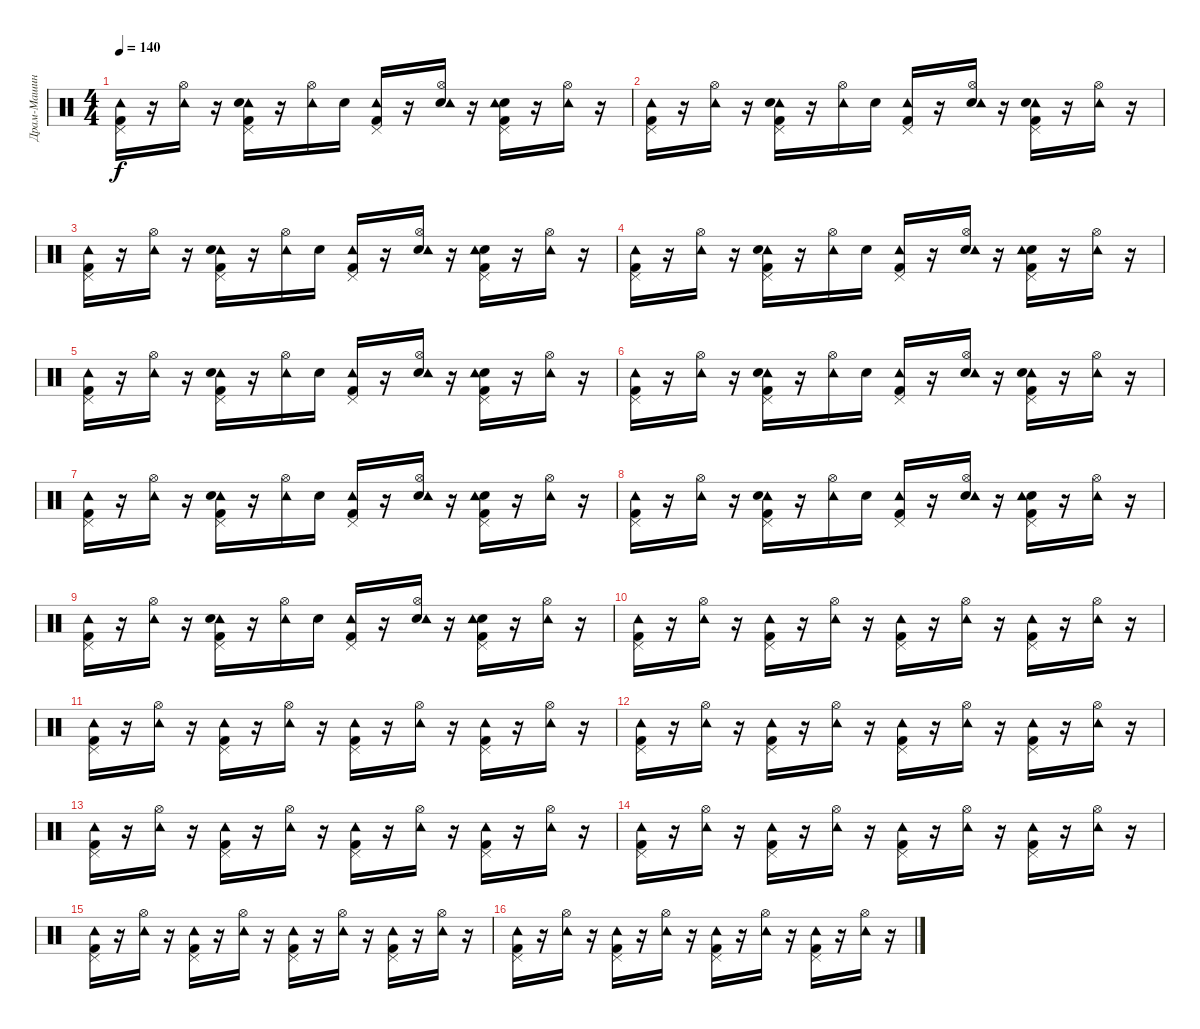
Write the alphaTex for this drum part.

\track ("Драм-Машина" "Драм-Машин") {instrument percussion}
\staff {score}
\articulation defaults
\ts (4 4)
\tempo 140
\clef neutral
\ks c
("Tambourine (hit)" "Kick (hit) 2" "Pedal Hi-Hat (hit)").16{dy f} r.16 ("Tambourine (hit)" "Hi-Hat (open)").16 r.16 ("Pedal Hi-Hat (hit)" "Kick (hit) 2" "Tambourine (hit)" "Snare (hit) 2").16 r.16 ("Tambourine (hit)" "Hi-Hat (open)").16 "Snare (hit) 2".16 ("Pedal Hi-Hat (hit)" "Kick (hit) 2" "Tambourine (hit)").16 r.16 ("Snare (hit) 2" "Tambourine (hit)" "Hi-Hat (open)").16 r.16 ("Snare (hit) 2" "Kick (hit) 2" "Pedal Hi-Hat (hit)" "Tambourine (hit)").16 r.16 ("Hi-Hat (open)" "Tambourine (hit)").16 r.16 |
("Tambourine (hit)" "Kick (hit) 2" "Pedal Hi-Hat (hit)").16 r.16 ("Tambourine (hit)" "Hi-Hat (open)").16 r.16 ("Kick (hit) 2" "Tambourine (hit)" "Pedal Hi-Hat (hit)" "Snare (hit) 2").16 r.16 ("Tambourine (hit)" "Hi-Hat (open)").16 "Snare (hit) 2".16 ("Tambourine (hit)" "Kick (hit) 2" "Pedal Hi-Hat (hit)").16 r.16 ("Snare (hit) 2" "Tambourine (hit)" "Hi-Hat (open)").16 r.16 ("Pedal Hi-Hat (hit)" "Kick (hit) 2" "Tambourine (hit)" "Snare (hit) 2").16 r.16 ("Tambourine (hit)" "Hi-Hat (open)").16 r.16 |
("Tambourine (hit)" "Pedal Hi-Hat (hit)" "Kick (hit) 2").16 r.16 ("Tambourine (hit)" "Hi-Hat (open)").16 r.16 ("Kick (hit) 2" "Tambourine (hit)" "Pedal Hi-Hat (hit)" "Snare (hit) 2").16 r.16 ("Hi-Hat (open)" "Tambourine (hit)").16 "Snare (hit) 2".16 ("Pedal Hi-Hat (hit)" "Tambourine (hit)" "Kick (hit) 2").16 r.16 ("Snare (hit) 2" "Hi-Hat (open)" "Tambourine (hit)").16 r.16 ("Snare (hit) 2" "Tambourine (hit)" "Kick (hit) 2" "Pedal Hi-Hat (hit)").16 r.16 ("Tambourine (hit)" "Hi-Hat (open)").16 r.16 |
("Tambourine (hit)" "Kick (hit) 2" "Pedal Hi-Hat (hit)").16 r.16 ("Tambourine (hit)" "Hi-Hat (open)").16 r.16 ("Tambourine (hit)" "Kick (hit) 2" "Pedal Hi-Hat (hit)" "Snare (hit) 2").16 r.16 ("Tambourine (hit)" "Hi-Hat (open)").16 "Snare (hit) 2".16 ("Pedal Hi-Hat (hit)" "Kick (hit) 2" "Tambourine (hit)").16 r.16 ("Snare (hit) 2" "Tambourine (hit)" "Hi-Hat (open)").16 r.16 ("Snare (hit) 2" "Kick (hit) 2" "Pedal Hi-Hat (hit)" "Tambourine (hit)").16 r.16 ("Tambourine (hit)" "Hi-Hat (open)").16 r.16 |
("Tambourine (hit)" "Kick (hit) 2" "Pedal Hi-Hat (hit)").16 r.16 ("Tambourine (hit)" "Hi-Hat (open)").16 r.16 ("Pedal Hi-Hat (hit)" "Kick (hit) 2" "Tambourine (hit)" "Snare (hit) 2").16 r.16 ("Tambourine (hit)" "Hi-Hat (open)").16 "Snare (hit) 2".16 ("Pedal Hi-Hat (hit)" "Kick (hit) 2" "Tambourine (hit)").16 r.16 ("Snare (hit) 2" "Tambourine (hit)" "Hi-Hat (open)").16 r.16 ("Snare (hit) 2" "Kick (hit) 2" "Pedal Hi-Hat (hit)" "Tambourine (hit)").16 r.16 ("Hi-Hat (open)" "Tambourine (hit)").16 r.16 |
("Tambourine (hit)" "Kick (hit) 2" "Pedal Hi-Hat (hit)").16 r.16 ("Tambourine (hit)" "Hi-Hat (open)").16 r.16 ("Kick (hit) 2" "Tambourine (hit)" "Pedal Hi-Hat (hit)" "Snare (hit) 2").16 r.16 ("Tambourine (hit)" "Hi-Hat (open)").16 "Snare (hit) 2".16 ("Tambourine (hit)" "Kick (hit) 2" "Pedal Hi-Hat (hit)").16 r.16 ("Snare (hit) 2" "Tambourine (hit)" "Hi-Hat (open)").16 r.16 ("Pedal Hi-Hat (hit)" "Kick (hit) 2" "Tambourine (hit)" "Snare (hit) 2").16 r.16 ("Tambourine (hit)" "Hi-Hat (open)").16 r.16 |
("Tambourine (hit)" "Pedal Hi-Hat (hit)" "Kick (hit) 2").16 r.16 ("Tambourine (hit)" "Hi-Hat (open)").16 r.16 ("Kick (hit) 2" "Tambourine (hit)" "Pedal Hi-Hat (hit)" "Snare (hit) 2").16 r.16 ("Hi-Hat (open)" "Tambourine (hit)").16 "Snare (hit) 2".16 ("Pedal Hi-Hat (hit)" "Tambourine (hit)" "Kick (hit) 2").16 r.16 ("Snare (hit) 2" "Hi-Hat (open)" "Tambourine (hit)").16 r.16 ("Snare (hit) 2" "Tambourine (hit)" "Kick (hit) 2" "Pedal Hi-Hat (hit)").16 r.16 ("Tambourine (hit)" "Hi-Hat (open)").16 r.16 |
("Tambourine (hit)" "Kick (hit) 2" "Pedal Hi-Hat (hit)").16 r.16 ("Tambourine (hit)" "Hi-Hat (open)").16 r.16 ("Tambourine (hit)" "Kick (hit) 2" "Pedal Hi-Hat (hit)" "Snare (hit) 2").16 r.16 ("Tambourine (hit)" "Hi-Hat (open)").16 "Snare (hit) 2".16 ("Pedal Hi-Hat (hit)" "Kick (hit) 2" "Tambourine (hit)").16 r.16 ("Snare (hit) 2" "Tambourine (hit)" "Hi-Hat (open)").16 r.16 ("Snare (hit) 2" "Kick (hit) 2" "Pedal Hi-Hat (hit)" "Tambourine (hit)").16 r.16 ("Tambourine (hit)" "Hi-Hat (open)").16 r.16 |
("Tambourine (hit)" "Kick (hit) 2" "Pedal Hi-Hat (hit)").16 r.16 ("Tambourine (hit)" "Hi-Hat (open)").16 r.16 ("Pedal Hi-Hat (hit)" "Kick (hit) 2" "Tambourine (hit)" "Snare (hit) 2").16 r.16 ("Tambourine (hit)" "Hi-Hat (open)").16 "Snare (hit) 2".16 ("Pedal Hi-Hat (hit)" "Kick (hit) 2" "Tambourine (hit)").16 r.16 ("Snare (hit) 2" "Tambourine (hit)" "Hi-Hat (open)").16 r.16 ("Snare (hit) 2" "Kick (hit) 2" "Pedal Hi-Hat (hit)" "Tambourine (hit)").16 r.16 ("Hi-Hat (open)" "Tambourine (hit)").16 r.16 |
("Tambourine (hit)" "Kick (hit) 2" "Pedal Hi-Hat (hit)").16 r.16 ("Tambourine (hit)" "Hi-Hat (open)").16 r.16 ("Kick (hit) 2" "Tambourine (hit)" "Pedal Hi-Hat (hit)").16 r.16 ("Tambourine (hit)" "Hi-Hat (open)").16 r.16 ("Tambourine (hit)" "Kick (hit) 2" "Pedal Hi-Hat (hit)").16 r.16 ("Tambourine (hit)" "Hi-Hat (open)").16 r.16 ("Pedal Hi-Hat (hit)" "Kick (hit) 2" "Tambourine (hit)").16 r.16 ("Tambourine (hit)" "Hi-Hat (open)").16 r.16 |
("Tambourine (hit)" "Pedal Hi-Hat (hit)" "Kick (hit) 2").16 r.16 ("Tambourine (hit)" "Hi-Hat (open)").16 r.16 ("Kick (hit) 2" "Tambourine (hit)" "Pedal Hi-Hat (hit)").16 r.16 ("Hi-Hat (open)" "Tambourine (hit)").16 r.16 ("Pedal Hi-Hat (hit)" "Tambourine (hit)" "Kick (hit) 2").16 r.16 ("Hi-Hat (open)" "Tambourine (hit)").16 r.16 ("Tambourine (hit)" "Kick (hit) 2" "Pedal Hi-Hat (hit)").16 r.16 ("Tambourine (hit)" "Hi-Hat (open)").16 r.16 |
("Tambourine (hit)" "Kick (hit) 2" "Pedal Hi-Hat (hit)").16 r.16 ("Tambourine (hit)" "Hi-Hat (open)").16 r.16 ("Tambourine (hit)" "Kick (hit) 2" "Pedal Hi-Hat (hit)").16 r.16 ("Tambourine (hit)" "Hi-Hat (open)").16 r.16 ("Pedal Hi-Hat (hit)" "Kick (hit) 2" "Tambourine (hit)").16 r.16 ("Tambourine (hit)" "Hi-Hat (open)").16 r.16 ("Kick (hit) 2" "Pedal Hi-Hat (hit)" "Tambourine (hit)").16 r.16 ("Tambourine (hit)" "Hi-Hat (open)").16 r.16 |
("Tambourine (hit)" "Kick (hit) 2" "Pedal Hi-Hat (hit)").16 r.16 ("Tambourine (hit)" "Hi-Hat (open)").16 r.16 ("Pedal Hi-Hat (hit)" "Kick (hit) 2" "Tambourine (hit)").16 r.16 ("Tambourine (hit)" "Hi-Hat (open)").16 r.16 ("Pedal Hi-Hat (hit)" "Kick (hit) 2" "Tambourine (hit)").16 r.16 ("Tambourine (hit)" "Hi-Hat (open)").16 r.16 ("Kick (hit) 2" "Pedal Hi-Hat (hit)" "Tambourine (hit)").16 r.16 ("Hi-Hat (open)" "Tambourine (hit)").16 r.16 |
("Tambourine (hit)" "Kick (hit) 2" "Pedal Hi-Hat (hit)").16 r.16 ("Tambourine (hit)" "Hi-Hat (open)").16 r.16 ("Kick (hit) 2" "Tambourine (hit)" "Pedal Hi-Hat (hit)").16 r.16 ("Tambourine (hit)" "Hi-Hat (open)").16 r.16 ("Tambourine (hit)" "Kick (hit) 2" "Pedal Hi-Hat (hit)").16 r.16 ("Tambourine (hit)" "Hi-Hat (open)").16 r.16 ("Pedal Hi-Hat (hit)" "Kick (hit) 2" "Tambourine (hit)").16 r.16 ("Tambourine (hit)" "Hi-Hat (open)").16 r.16 |
("Tambourine (hit)" "Pedal Hi-Hat (hit)" "Kick (hit) 2").16 r.16 ("Tambourine (hit)" "Hi-Hat (open)").16 r.16 ("Kick (hit) 2" "Tambourine (hit)" "Pedal Hi-Hat (hit)").16 r.16 ("Hi-Hat (open)" "Tambourine (hit)").16 r.16 ("Pedal Hi-Hat (hit)" "Tambourine (hit)" "Kick (hit) 2").16 r.16 ("Hi-Hat (open)" "Tambourine (hit)").16 r.16 ("Tambourine (hit)" "Kick (hit) 2" "Pedal Hi-Hat (hit)").16 r.16 ("Tambourine (hit)" "Hi-Hat (open)").16 r.16 |
("Tambourine (hit)" "Kick (hit) 2" "Pedal Hi-Hat (hit)").16 r.16 ("Tambourine (hit)" "Hi-Hat (open)").16 r.16 ("Tambourine (hit)" "Kick (hit) 2" "Pedal Hi-Hat (hit)").16 r.16 ("Tambourine (hit)" "Hi-Hat (open)").16 r.16 ("Pedal Hi-Hat (hit)" "Kick (hit) 2" "Tambourine (hit)").16 r.16 ("Tambourine (hit)" "Hi-Hat (open)").16 r.16 ("Kick (hit) 2" "Pedal Hi-Hat (hit)" "Tambourine (hit)").16 r.16 ("Tambourine (hit)" "Hi-Hat (open)").16 r.16
